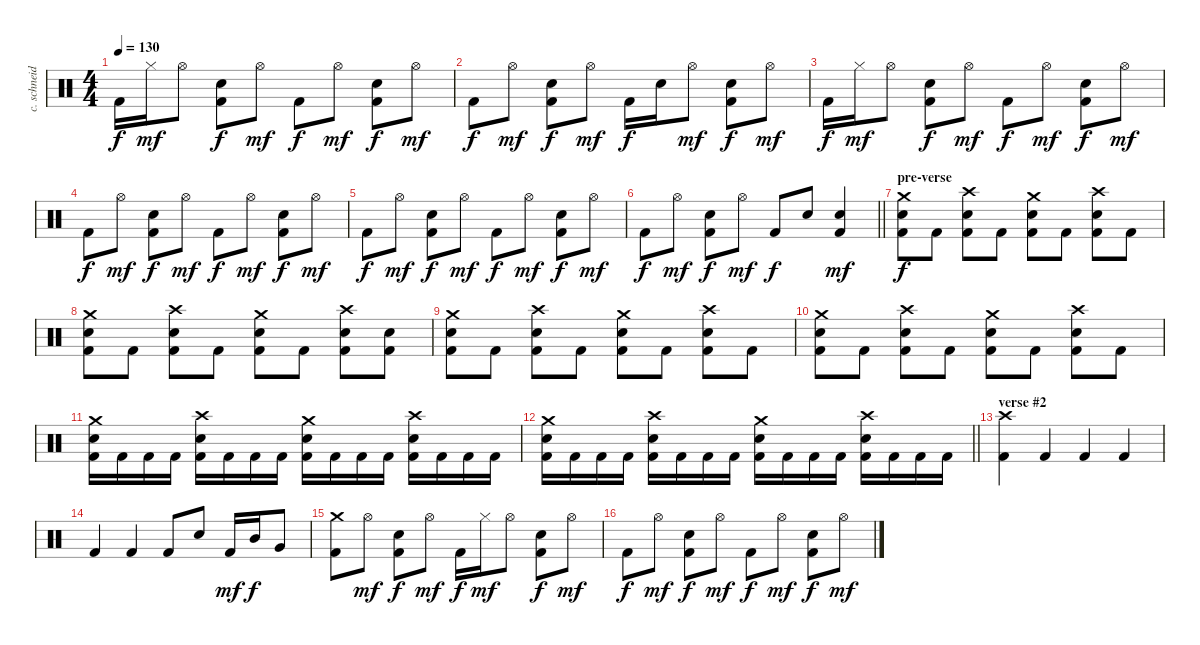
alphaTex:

\track ("c. schneider - drums" "c. schneid") {instrument percussion}
\staff {score}
\articulation defaults
\ts (4 4)
\tempo 130
\clef neutral
\ks c "Kick (hit) 2".16{dy f} "Hi-Hat (closed)".16{dy mf} "Hi-Hat (open)".8
("Electric Snare (hit)" "Kick (hit) 2").8{dy f} "Hi-Hat (open)".8{dy mf} "Kick (hit) 2".8{dy f} "Hi-Hat (open)".8{dy mf} ("Electric Snare (hit)" "Kick (hit) 2").8{dy f} "Hi-Hat (open)".8{dy mf} |
"Kick (hit) 2".8{dy f} "Hi-Hat (open)".8{dy mf} ("Electric Snare (hit)" "Kick (hit) 2").8{dy f} "Hi-Hat (open)".8{dy mf} "Kick (hit) 2".16{dy f} "Electric Snare (hit)".16 "Hi-Hat (open)".8{dy mf} ("Electric Snare (hit)" "Kick (hit) 2").8{dy f} "Hi-Hat (open)".8{dy mf} |
"Kick (hit) 2".16{dy f} "Hi-Hat (closed)".16{dy mf} "Hi-Hat (open)".8 ("Electric Snare (hit)" "Kick (hit) 2").8{dy f} "Hi-Hat (open)".8{dy mf} "Kick (hit) 2".8{dy f} "Hi-Hat (open)".8{dy mf} ("Electric Snare (hit)" "Kick (hit) 2").8{dy f} "Hi-Hat (open)".8{dy mf} |
"Kick (hit) 2".8{dy f} "Hi-Hat (open)".8{dy mf} ("Electric Snare (hit)" "Kick (hit) 2").8{dy f} "Hi-Hat (open)".8{dy mf} "Kick (hit) 2".8{dy f} "Hi-Hat (open)".8{dy mf} ("Electric Snare (hit)" "Kick (hit) 2").8{dy f} "Hi-Hat (open)".8{dy mf} |
"Kick (hit) 2".8{dy f} "Hi-Hat (open)".8{dy mf} ("Electric Snare (hit)" "Kick (hit) 2").8{dy f} "Hi-Hat (open)".8{dy mf} "Kick (hit) 2".8{dy f} "Hi-Hat (open)".8{dy mf} ("Electric Snare (hit)" "Kick (hit) 2").8{dy f} "Hi-Hat (open)".8{dy mf} |
\barLineRight lightlight "Kick (hit) 2".8{dy f} "Hi-Hat (open)".8{dy mf}
("Electric Snare (hit)" "Kick (hit) 2").8{dy f} "Hi-Hat (open)".8{dy mf} "Kick (hit) 2".8{dy f} "Electric Snare (hit)".8 ("Electric Snare (hit)" "Kick (hit) 2").4{dy mf} |
\section ("" "pre-verse")
("Crash medium (hit)" "Electric Snare (hit)" "Kick (hit) 2").8{dy f} "Kick (hit) 2".8 ("Crash high (hit)" "Electric Snare (hit)" "Kick (hit) 2").8 "Kick (hit) 2".8 ("Crash medium (hit)" "Electric Snare (hit)" "Kick (hit) 2").8 "Kick (hit) 2".8 ("Crash high (hit)" "Electric Snare (hit)" "Kick (hit) 2").8 "Kick (hit) 2".8 |
("Crash medium (hit)" "Electric Snare (hit)" "Kick (hit) 2").8 "Kick (hit) 2".8 ("Crash high (hit)" "Electric Snare (hit)" "Kick (hit) 2").8 "Kick (hit) 2".8 ("Crash medium (hit)" "Electric Snare (hit)" "Kick (hit) 2").8 "Kick (hit) 2".8 ("Crash high (hit)" "Electric Snare (hit)" "Kick (hit) 2").8 ("Electric Snare (hit)" "Kick (hit) 2").8 |
("Crash medium (hit)" "Electric Snare (hit)" "Kick (hit) 2").8 "Kick (hit) 2".8 ("Crash high (hit)" "Electric Snare (hit)" "Kick (hit) 2").8 "Kick (hit) 2".8 ("Crash medium (hit)" "Electric Snare (hit)" "Kick (hit) 2").8 "Kick (hit) 2".8 ("Crash high (hit)" "Electric Snare (hit)" "Kick (hit) 2").8 "Kick (hit) 2".8 |
("Crash medium (hit)" "Electric Snare (hit)" "Kick (hit) 2").8 "Kick (hit) 2".8 ("Crash high (hit)" "Electric Snare (hit)" "Kick (hit) 2").8 "Kick (hit) 2".8 ("Crash medium (hit)" "Electric Snare (hit)" "Kick (hit) 2").8 "Kick (hit) 2".8 ("Crash high (hit)" "Electric Snare (hit)" "Kick (hit) 2").8 "Kick (hit) 2".8 |
("Crash medium (hit)" "Electric Snare (hit)" "Kick (hit) 2").16 "Kick (hit) 2".16 "Kick (hit) 2".16 "Kick (hit) 2".16 ("Crash high (hit)" "Electric Snare (hit)" "Kick (hit) 2").16 "Kick (hit) 2".16 "Kick (hit) 2".16 "Kick (hit) 2".16 ("Crash medium (hit)" "Electric Snare (hit)" "Kick (hit) 2").16 "Kick (hit) 2".16 "Kick (hit) 2".16 "Kick (hit) 2".16 ("Crash high (hit)" "Electric Snare (hit)" "Kick (hit) 2").16 "Kick (hit) 2".16 "Kick (hit) 2".16 "Kick (hit) 2".16 |
\barLineRight lightlight
("Crash medium (hit)" "Electric Snare (hit)" "Kick (hit) 2").16 "Kick (hit) 2".16 "Kick (hit) 2".16 "Kick (hit) 2".16 ("Crash high (hit)" "Electric Snare (hit)" "Kick (hit) 2").16 "Kick (hit) 2".16 "Kick (hit) 2".16 "Kick (hit) 2".16 ("Crash medium (hit)" "Electric Snare (hit)" "Kick (hit) 2").16 "Kick (hit) 2".16 "Kick (hit) 2".16 "Kick (hit) 2".16 ("Crash high (hit)" "Electric Snare (hit)" "Kick (hit) 2").16 "Kick (hit) 2".16 "Kick (hit) 2".16 "Kick (hit) 2".16 |
\section ("" "verse #2")
("Crash high (hit)" "Kick (hit) 2").4 "Kick (hit) 2".4 "Kick (hit) 2".4 "Kick (hit) 2".4 |
"Kick (hit) 2".4 "Kick (hit) 2".4 "Kick (hit) 2".8 "Electric Snare (hit)".8 "Kick (hit) 2".16{dy mf} "Mid Tom (hit)".16{dy f} "Very Low Tom (hit)".8 |
("Crash medium (hit)" "Kick (hit) 2").8 "Hi-Hat (open)".8{dy mf} ("Electric Snare (hit)" "Kick (hit) 2").8{dy f} "Hi-Hat (open)".8{dy mf} "Kick (hit) 2".16{dy f} "Hi-Hat (closed)".16{dy mf} "Hi-Hat (open)".8 ("Electric Snare (hit)" "Kick (hit) 2").8{dy f} "Hi-Hat (open)".8{dy mf} |
"Kick (hit) 2".8{dy f} "Hi-Hat (open)".8{dy mf} ("Electric Snare (hit)" "Kick (hit) 2").8{dy f} "Hi-Hat (open)".8{dy mf} "Kick (hit) 2".8{dy f} "Hi-Hat (open)".8{dy mf} ("Electric Snare (hit)" "Kick (hit) 2").8{dy f} "Hi-Hat (open)".8{dy mf}
